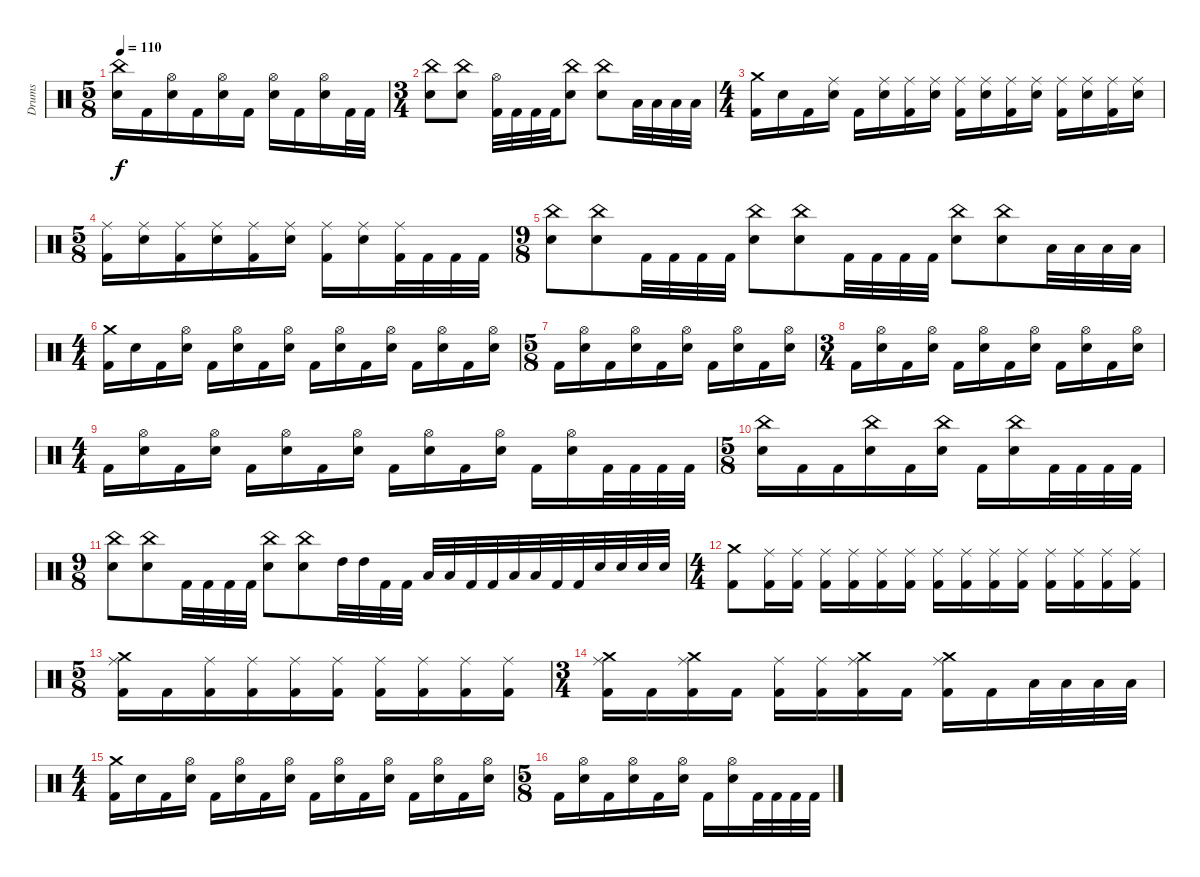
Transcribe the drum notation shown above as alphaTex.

\track ("Drums" "Drums") {instrument percussion}
\staff {score}
\articulation defaults
\ts (5 8)
\tempo 110
\clef neutral
\ks c
("China (hit)" "Snare (hit) 2").16{dy f} "Kick (hit) 2".16 ("Hi-Hat (open)" "Snare (hit) 2").16 "Kick (hit) 2".16 ("Hi-Hat (open)" "Snare (hit) 2").16 "Kick (hit) 2".16 ("Hi-Hat (open)" "Snare (hit) 2").16 "Kick (hit) 2".16 ("Hi-Hat (open)" "Snare (hit) 2").16 "Kick (hit) 2".32 "Kick (hit) 2".32 |
\ts (3 4)
("China (hit)" "Snare (hit) 2").8 ("China (hit)" "Snare (hit) 2").8 ("Hi-Hat (open)" "Kick (hit) 2").32 "Kick (hit) 2".32 "Kick (hit) 2".32 "Kick (hit) 2".32 ("China (hit)" "Snare (hit) 2").8 ("China (hit)" "Snare (hit) 2").8 "Low Tom (hit)".32 "Low Tom (hit)".32 "Low Tom (hit)".32 "Low Tom (hit)".32 |
\ts (4 4)
("Crash medium (hit)" "Kick (hit) 2").16 "Snare (hit) 2".16 "Kick (hit) 2".16 ("Ride (middle)" "Snare (hit) 2").16 "Kick (hit) 2".16 ("Ride (middle)" "Snare (hit) 2").16 ("Ride (middle)" "Kick (hit) 2").16 ("Ride (middle)" "Snare (hit) 2").16 ("Ride (middle)" "Kick (hit) 2").16 ("Ride (middle)" "Snare (hit) 2").16 ("Ride (middle)" "Kick (hit) 2").16 ("Ride (middle)" "Snare (hit) 2").16 ("Ride (middle)" "Kick (hit) 2").16 ("Ride (middle)" "Snare (hit) 2").16 ("Ride (middle)" "Kick (hit) 2").16 ("Ride (middle)" "Snare (hit) 2").16 |
\ts (5 8)
("Ride (middle)" "Kick (hit) 2").16 ("Ride (middle)" "Snare (hit) 2").16 ("Ride (middle)" "Kick (hit) 2").16 ("Ride (middle)" "Snare (hit) 2").16 ("Ride (middle)" "Kick (hit) 2").16 ("Ride (middle)" "Snare (hit) 2").16 ("Ride (middle)" "Kick (hit) 2").16 ("Ride (middle)" "Snare (hit) 2").16 ("Ride (middle)" "Kick (hit) 2").32 "Kick (hit) 2".32 "Kick (hit) 2".32 "Kick (hit) 2".32 |
\ts (9 8)
("China (hit)" "Snare (hit) 2").8 ("China (hit)" "Snare (hit) 2").8 "Kick (hit) 2".32 "Kick (hit) 2".32 "Kick (hit) 2".32 "Kick (hit) 2".32 ("China (hit)" "Snare (hit) 2").8 ("China (hit)" "Snare (hit) 2").8 "Kick (hit) 2".32 "Kick (hit) 2".32 "Kick (hit) 2".32 "Kick (hit) 2".32 ("China (hit)" "Snare (hit) 2").8 ("China (hit)" "Snare (hit) 2").8 "Low Tom (hit)".32 "Low Tom (hit)".32 "Low Tom (hit)".32 "Low Tom (hit)".32 |
\ts (4 4)
("Crash medium (hit)" "Kick (hit) 2").16 "Snare (hit) 2".16 "Kick (hit) 2".16 ("Hi-Hat (open)" "Snare (hit) 2").16 "Kick (hit) 2".16 ("Hi-Hat (open)" "Snare (hit) 2").16 "Kick (hit) 2".16 ("Hi-Hat (open)" "Snare (hit) 2").16 "Kick (hit) 2".16 ("Hi-Hat (open)" "Snare (hit) 2").16 "Kick (hit) 2".16 ("Hi-Hat (open)" "Snare (hit) 2").16 "Kick (hit) 2".16 ("Hi-Hat (open)" "Snare (hit) 2").16 "Kick (hit) 2".16 ("Hi-Hat (open)" "Snare (hit) 2").16 |
\ts (5 8)
"Kick (hit) 2".16 ("Hi-Hat (open)" "Snare (hit) 2").16 "Kick (hit) 2".16 ("Hi-Hat (open)" "Snare (hit) 2").16 "Kick (hit) 2".16 ("Hi-Hat (open)" "Snare (hit) 2").16 "Kick (hit) 2".16 ("Hi-Hat (open)" "Snare (hit) 2").16 "Kick (hit) 2".16 ("Hi-Hat (open)" "Snare (hit) 2").16 |
\ts (3 4)
"Kick (hit) 2".16 ("Hi-Hat (open)" "Snare (hit) 2").16 "Kick (hit) 2".16 ("Hi-Hat (open)" "Snare (hit) 2").16 "Kick (hit) 2".16 ("Hi-Hat (open)" "Snare (hit) 2").16 "Kick (hit) 2".16 ("Hi-Hat (open)" "Snare (hit) 2").16 "Kick (hit) 2".16 ("Hi-Hat (open)" "Snare (hit) 2").16 "Kick (hit) 2".16 ("Hi-Hat (open)" "Snare (hit) 2").16 |
\ts (4 4)
"Kick (hit) 2".16 ("Hi-Hat (open)" "Snare (hit) 2").16 "Kick (hit) 2".16 ("Hi-Hat (open)" "Snare (hit) 2").16 "Kick (hit) 2".16 ("Hi-Hat (open)" "Snare (hit) 2").16 "Kick (hit) 2".16 ("Hi-Hat (open)" "Snare (hit) 2").16 "Kick (hit) 2".16 ("Hi-Hat (open)" "Snare (hit) 2").16 "Kick (hit) 2".16 ("Hi-Hat (open)" "Snare (hit) 2").16 "Kick (hit) 2".16 ("Hi-Hat (open)" "Snare (hit) 2").16 "Kick (hit) 2".32 "Kick (hit) 2".32 "Kick (hit) 2".32 "Kick (hit) 2".32 |
\ts (5 8)
("China (hit)" "Snare (hit) 2").16 "Kick (hit) 2".16 "Kick (hit) 2".16 ("China (hit)" "Snare (hit) 2").16 "Kick (hit) 2".16 ("China (hit)" "Snare (hit) 2").16 "Kick (hit) 2".16 ("China (hit)" "Snare (hit) 2").16 "Kick (hit) 2".32 "Kick (hit) 2".32 "Kick (hit) 2".32 "Kick (hit) 2".32 |
\ts (9 8)
("China (hit)" "Snare (hit) 2").8 ("China (hit)" "Snare (hit) 2").8 "Kick (hit) 2".32 "Kick (hit) 2".32 "Kick (hit) 2".32 "Kick (hit) 2".32 ("China (hit)" "Snare (hit) 2").8 ("China (hit)" "Snare (hit) 2").8 "High Tom (hit)".32 "High Tom (hit)".32 "Kick (hit) 2".32 "Kick (hit) 2".32 "Low Tom (hit)".32 "Low Tom (hit)".32 "Kick (hit) 2".32 "Kick (hit) 2".32 "Low Tom (hit)".32 "Low Tom (hit)".32 "Kick (hit) 2".32 "Kick (hit) 2".32 "Snare (hit) 2".32 "Snare (hit) 2".32 "Snare (hit) 2".32 "Snare (hit) 2".32 |
\ts (4 4)
("Crash medium (hit)" "Kick (hit) 2").8 ("Ride (middle)" "Kick (hit) 2").16 ("Ride (middle)" "Kick (hit) 2").16 ("Ride (middle)" "Kick (hit) 2").16 ("Ride (middle)" "Kick (hit) 2").16 ("Ride (middle)" "Kick (hit) 2").16 ("Ride (middle)" "Kick (hit) 2").16 ("Ride (middle)" "Kick (hit) 2").16 ("Ride (middle)" "Kick (hit) 2").16 ("Ride (middle)" "Kick (hit) 2").16 ("Ride (middle)" "Kick (hit) 2").16 ("Ride (middle)" "Kick (hit) 2").16 ("Ride (middle)" "Kick (hit) 2").16 ("Ride (middle)" "Kick (hit) 2").16 ("Ride (middle)" "Kick (hit) 2").16 |
\ts (5 8)
("Crash medium (hit)" "Ride (middle)" "Kick (hit) 2").16 "Kick (hit) 2".16 ("Ride (middle)" "Kick (hit) 2").16 ("Ride (middle)" "Kick (hit) 2").16 ("Ride (middle)" "Kick (hit) 2").16 ("Ride (middle)" "Kick (hit) 2").16 ("Ride (middle)" "Kick (hit) 2").16 ("Ride (middle)" "Kick (hit) 2").16 ("Ride (middle)" "Kick (hit) 2").16 ("Ride (middle)" "Kick (hit) 2").16 |
\ts (3 4)
("Crash medium (hit)" "Ride (middle)" "Kick (hit) 2").16 "Kick (hit) 2".16 ("Crash medium (hit)" "Ride (middle)" "Kick (hit) 2").16 "Kick (hit) 2".16 ("Ride (middle)" "Kick (hit) 2").16 ("Ride (middle)" "Kick (hit) 2").16 ("Crash medium (hit)" "Ride (middle)" "Kick (hit) 2").16 "Kick (hit) 2".16 ("Crash medium (hit)" "Ride (middle)" "Kick (hit) 2").16 "Kick (hit) 2".16 "Low Tom (hit)".32 "Low Tom (hit)".32 "Low Tom (hit)".32 "Low Tom (hit)".32 |
\ts (4 4)
("Crash medium (hit)" "Kick (hit) 2").16 "Snare (hit) 2".16 "Kick (hit) 2".16 ("Hi-Hat (open)" "Snare (hit) 2").16 "Kick (hit) 2".16 ("Hi-Hat (open)" "Snare (hit) 2").16 "Kick (hit) 2".16 ("Hi-Hat (open)" "Snare (hit) 2").16 "Kick (hit) 2".16 ("Hi-Hat (open)" "Snare (hit) 2").16 "Kick (hit) 2".16 ("Hi-Hat (open)" "Snare (hit) 2").16 "Kick (hit) 2".16 ("Hi-Hat (open)" "Snare (hit) 2").16 "Kick (hit) 2".16 ("Hi-Hat (open)" "Snare (hit) 2").16 |
\ts (5 8)
"Kick (hit) 2".16 ("Hi-Hat (open)" "Snare (hit) 2").16 "Kick (hit) 2".16 ("Hi-Hat (open)" "Snare (hit) 2").16 "Kick (hit) 2".16 ("Hi-Hat (open)" "Snare (hit) 2").16 "Kick (hit) 2".16 ("Hi-Hat (open)" "Snare (hit) 2").16 "Kick (hit) 2".32 "Kick (hit) 2".32 "Kick (hit) 2".32 "Kick (hit) 2".32
